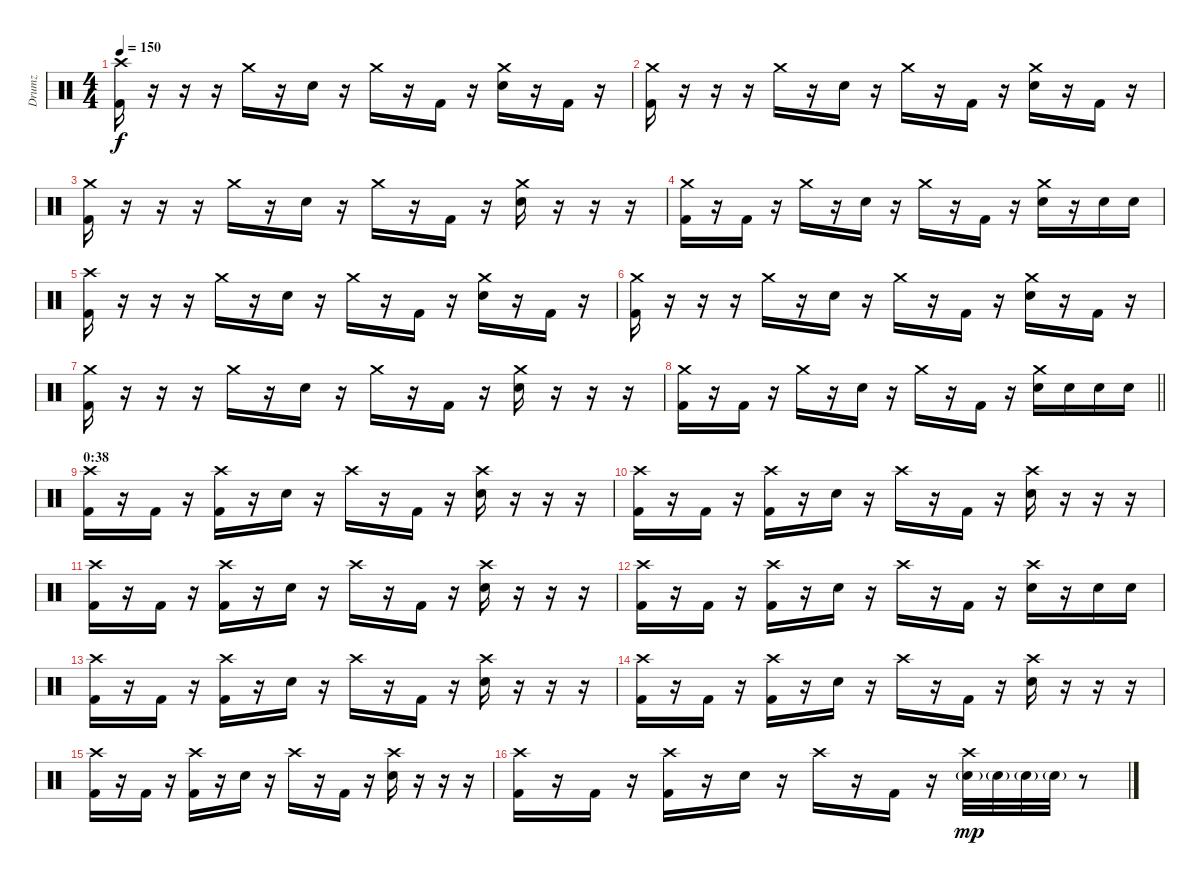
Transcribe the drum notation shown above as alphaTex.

\track ("Drumz" "Drumz") {instrument percussion}
\staff {score}
\articulation defaults
\ts (4 4)
\tempo 150
\clef neutral
\ks c
("Crash high (hit)" "Kick (hit) 2").16{dy f} r.16 r.16 r.16 "Crash medium (hit)".16 r.16 "Electric Snare (hit)".16 r.16 "Crash medium (hit)".16 r.16 "Kick (hit) 2".16 r.16 ("Crash medium (hit)" "Electric Snare (hit)").16 r.16 "Kick (hit) 2".16 r.16 |
("Crash medium (hit)" "Kick (hit) 2").16 r.16 r.16 r.16 "Crash medium (hit)".16 r.16 "Electric Snare (hit)".16 r.16 "Crash medium (hit)".16 r.16 "Kick (hit) 2".16 r.16 ("Crash medium (hit)" "Electric Snare (hit)").16 r.16 "Kick (hit) 2".16 r.16 |
("Crash medium (hit)" "Kick (hit) 2").16 r.16 r.16 r.16 "Crash medium (hit)".16 r.16 "Electric Snare (hit)".16 r.16 "Crash medium (hit)".16 r.16 "Kick (hit) 2".16 r.16 ("Crash medium (hit)" "Electric Snare (hit)").16 r.16 r.16 r.16 |
("Crash medium (hit)" "Kick (hit) 2").16 r.16 "Kick (hit) 2".16 r.16 "Crash medium (hit)".16 r.16 "Electric Snare (hit)".16 r.16 "Crash medium (hit)".16 r.16 "Kick (hit) 2".16 r.16 ("Crash medium (hit)" "Electric Snare (hit)").16 r.16 "Electric Snare (hit)".16 "Electric Snare (hit)".16 |
("Crash high (hit)" "Kick (hit) 2").16 r.16 r.16 r.16 "Crash medium (hit)".16 r.16 "Electric Snare (hit)".16 r.16 "Crash medium (hit)".16 r.16 "Kick (hit) 2".16 r.16 ("Crash medium (hit)" "Electric Snare (hit)").16 r.16 "Kick (hit) 2".16 r.16 |
("Crash medium (hit)" "Kick (hit) 2").16 r.16 r.16 r.16 "Crash medium (hit)".16 r.16 "Electric Snare (hit)".16 r.16 "Crash medium (hit)".16 r.16 "Kick (hit) 2".16 r.16 ("Crash medium (hit)" "Electric Snare (hit)").16 r.16 "Kick (hit) 2".16 r.16 |
("Crash medium (hit)" "Kick (hit) 2").16 r.16 r.16 r.16 "Crash medium (hit)".16 r.16 "Electric Snare (hit)".16 r.16 "Crash medium (hit)".16 r.16 "Kick (hit) 2".16 r.16 ("Crash medium (hit)" "Electric Snare (hit)").16 r.16 r.16 r.16 |
\barLineRight lightlight
("Crash medium (hit)" "Kick (hit) 2").16 r.16 "Kick (hit) 2".16 r.16 "Crash medium (hit)".16 r.16 "Electric Snare (hit)".16 r.16 "Crash medium (hit)".16 r.16 "Kick (hit) 2".16 r.16 ("Crash medium (hit)" "Electric Snare (hit)").16 "Electric Snare (hit)".16 "Electric Snare (hit)".16 "Electric Snare (hit)".16 |
\section ("" "0:38")
("Crash high (hit)" "Kick (hit) 2").16 r.16 "Kick (hit) 2".16 r.16 ("Crash high (hit)" "Kick (hit) 2").16 r.16 "Electric Snare (hit)".16 r.16 "Crash high (hit)".16 r.16 "Kick (hit) 2".16 r.16 ("Crash high (hit)" "Electric Snare (hit)").16 r.16 r.16 r.16 |
("Crash high (hit)" "Kick (hit) 2").16 r.16 "Kick (hit) 2".16 r.16 ("Crash high (hit)" "Kick (hit) 2").16 r.16 "Electric Snare (hit)".16 r.16 "Crash high (hit)".16 r.16 "Kick (hit) 2".16 r.16 ("Crash high (hit)" "Electric Snare (hit)").16 r.16 r.16 r.16 |
("Crash high (hit)" "Kick (hit) 2").16 r.16 "Kick (hit) 2".16 r.16 ("Crash high (hit)" "Kick (hit) 2").16 r.16 "Electric Snare (hit)".16 r.16 "Crash high (hit)".16 r.16 "Kick (hit) 2".16 r.16 ("Crash high (hit)" "Electric Snare (hit)").16 r.16 r.16 r.16 |
("Crash high (hit)" "Kick (hit) 2").16 r.16 "Kick (hit) 2".16 r.16 ("Crash high (hit)" "Kick (hit) 2").16 r.16 "Electric Snare (hit)".16 r.16 "Crash high (hit)".16 r.16 "Kick (hit) 2".16 r.16 ("Crash high (hit)" "Electric Snare (hit)").16 r.16 "Electric Snare (hit)".16 "Electric Snare (hit)".16 |
("Crash high (hit)" "Kick (hit) 2").16 r.16 "Kick (hit) 2".16 r.16 ("Crash high (hit)" "Kick (hit) 2").16 r.16 "Electric Snare (hit)".16 r.16 "Crash high (hit)".16 r.16 "Kick (hit) 2".16 r.16 ("Crash high (hit)" "Electric Snare (hit)").16 r.16 r.16 r.16 |
("Crash high (hit)" "Kick (hit) 2").16 r.16 "Kick (hit) 2".16 r.16 ("Crash high (hit)" "Kick (hit) 2").16 r.16 "Electric Snare (hit)".16 r.16 "Crash high (hit)".16 r.16 "Kick (hit) 2".16 r.16 ("Crash high (hit)" "Electric Snare (hit)").16 r.16 r.16 r.16 |
("Crash high (hit)" "Kick (hit) 2").16 r.16 "Kick (hit) 2".16 r.16 ("Crash high (hit)" "Kick (hit) 2").16 r.16 "Electric Snare (hit)".16 r.16 "Crash high (hit)".16 r.16 "Kick (hit) 2".16 r.16 ("Crash high (hit)" "Electric Snare (hit)").16 r.16 r.16 r.16 |
("Crash high (hit)" "Kick (hit) 2").16 r.16 "Kick (hit) 2".16 r.16 ("Crash high (hit)" "Kick (hit) 2").16 r.16 "Electric Snare (hit)".16 r.16 "Crash high (hit)".16 r.16 "Kick (hit) 2".16 r.16 ("Crash high (hit)" "Electric Snare (hit)"{g}).32{dy mp} "Electric Snare (hit)"{g}.32 "Electric Snare (hit)"{g}.32 "Electric Snare (hit)"{g}.32 r.8
